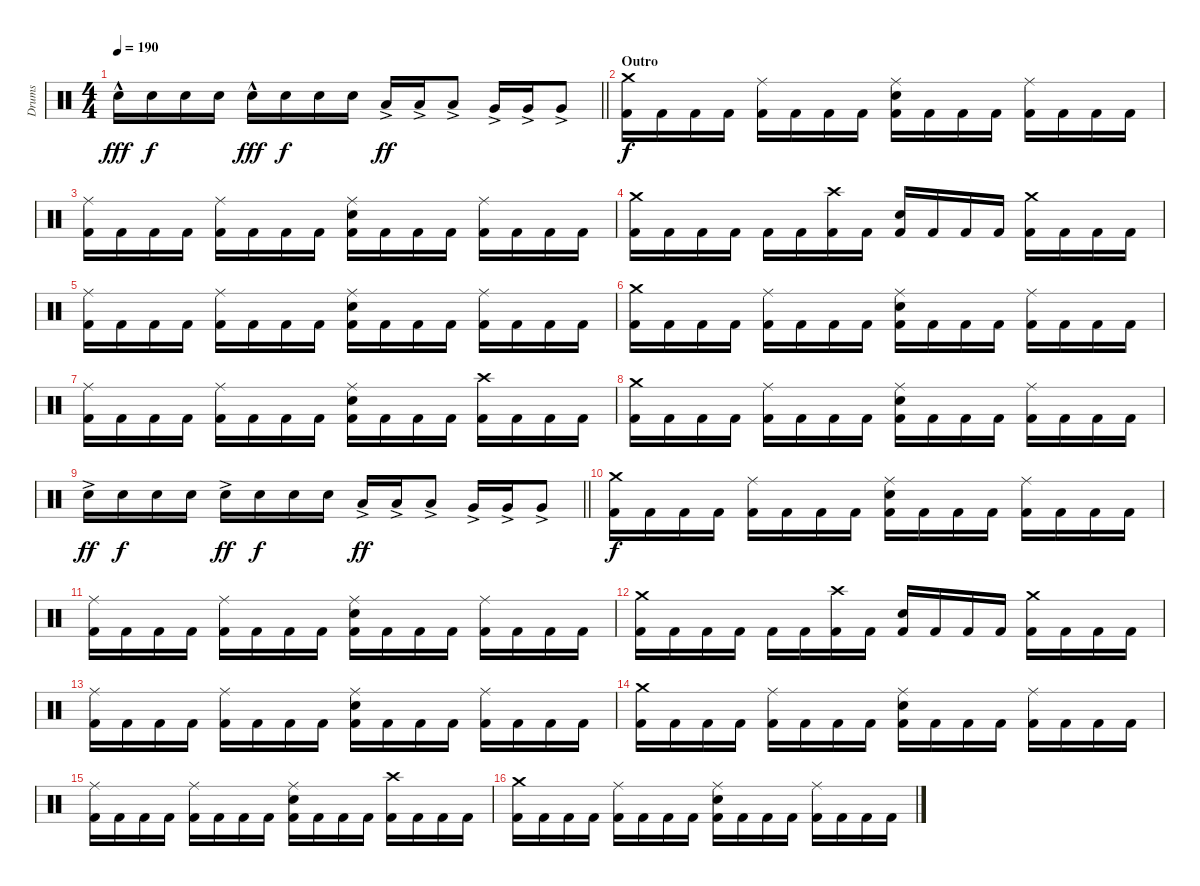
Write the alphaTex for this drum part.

\track ("Drums" "Drums") {instrument percussion}
\staff {score}
\articulation defaults
\ts (4 4)
\tempo 190
\clef neutral
\barLineRight lightlight
\ks c "Snare (hit) 2"{hac}.16{dy fff} "Snare (hit) 2".16{dy f} "Snare (hit) 2".16 "Snare (hit) 2".16 "Snare (hit) 2"{hac}.16{dy fff} "Snare (hit) 2".16{dy f} "Snare (hit) 2".16 "Snare (hit) 2".16 "Low Tom (hit)"{ac}.16{dy ff} "Low Tom (hit)"{ac}.16 "Low Tom (hit)"{ac}.8 "Very Low Tom (hit)"{ac}.16 "Very Low Tom (hit)"{ac}.16 "Very Low Tom (hit)"{ac}.8
|
\section ("" "Outro")
("Kick (hit) 2" "Crash medium (hit)").16{dy f} "Kick (hit) 2".16 "Kick (hit) 2".16 "Kick (hit) 2".16 ("Kick (hit) 2" "Ride (middle)").16 "Kick (hit) 2".16 "Kick (hit) 2".16 "Kick (hit) 2".16 ("Kick (hit) 2" "Snare (hit) 2" "Ride (middle)").16 "Kick (hit) 2".16 "Kick (hit) 2".16 "Kick (hit) 2".16 ("Kick (hit) 2" "Ride (middle)").16 "Kick (hit) 2".16 "Kick (hit) 2".16 "Kick (hit) 2".16 |
("Kick (hit) 2" "Ride (middle)").16 "Kick (hit) 2".16 "Kick (hit) 2".16 "Kick (hit) 2".16 ("Kick (hit) 2" "Ride (middle)").16 "Kick (hit) 2".16 "Kick (hit) 2".16 "Kick (hit) 2".16 ("Kick (hit) 2" "Snare (hit) 2" "Ride (middle)").16 "Kick (hit) 2".16 "Kick (hit) 2".16 "Kick (hit) 2".16 ("Kick (hit) 2" "Ride (middle)").16 "Kick (hit) 2".16 "Kick (hit) 2".16 "Kick (hit) 2".16 |
("Kick (hit) 2" "Crash medium (hit)").16 "Kick (hit) 2".16 "Kick (hit) 2".16 "Kick (hit) 2".16 "Kick (hit) 2".16 "Kick (hit) 2".16 ("Kick (hit) 2" "Crash high (hit)").16 "Kick (hit) 2".16 ("Kick (hit) 2" "Snare (hit) 2").16 "Kick (hit) 2".16 "Kick (hit) 2".16 "Kick (hit) 2".16 ("Kick (hit) 2" "Crash medium (hit)").16 "Kick (hit) 2".16 "Kick (hit) 2".16 "Kick (hit) 2".16 |
("Kick (hit) 2" "Ride (middle)").16 "Kick (hit) 2".16 "Kick (hit) 2".16 "Kick (hit) 2".16 ("Kick (hit) 2" "Ride (middle)").16 "Kick (hit) 2".16 "Kick (hit) 2".16 "Kick (hit) 2".16 ("Kick (hit) 2" "Snare (hit) 2" "Ride (middle)").16 "Kick (hit) 2".16 "Kick (hit) 2".16 "Kick (hit) 2".16 ("Kick (hit) 2" "Ride (middle)").16 "Kick (hit) 2".16 "Kick (hit) 2".16 "Kick (hit) 2".16 |
("Kick (hit) 2" "Crash medium (hit)").16 "Kick (hit) 2".16 "Kick (hit) 2".16 "Kick (hit) 2".16 ("Kick (hit) 2" "Ride (middle)").16 "Kick (hit) 2".16 "Kick (hit) 2".16 "Kick (hit) 2".16 ("Kick (hit) 2" "Snare (hit) 2" "Ride (middle)").16 "Kick (hit) 2".16 "Kick (hit) 2".16 "Kick (hit) 2".16 ("Kick (hit) 2" "Ride (middle)").16 "Kick (hit) 2".16 "Kick (hit) 2".16 "Kick (hit) 2".16 |
("Kick (hit) 2" "Ride (middle)").16 "Kick (hit) 2".16 "Kick (hit) 2".16 "Kick (hit) 2".16 ("Kick (hit) 2" "Ride (middle)").16 "Kick (hit) 2".16 "Kick (hit) 2".16 "Kick (hit) 2".16 ("Kick (hit) 2" "Snare (hit) 2" "Ride (middle)").16 "Kick (hit) 2".16 "Kick (hit) 2".16 "Kick (hit) 2".16 ("Kick (hit) 2" "Crash high (hit)").16 "Kick (hit) 2".16 "Kick (hit) 2".16 "Kick (hit) 2".16 |
("Kick (hit) 2" "Crash medium (hit)").16 "Kick (hit) 2".16 "Kick (hit) 2".16 "Kick (hit) 2".16 ("Kick (hit) 2" "Ride (middle)").16 "Kick (hit) 2".16 "Kick (hit) 2".16 "Kick (hit) 2".16 ("Kick (hit) 2" "Snare (hit) 2" "Ride (middle)").16 "Kick (hit) 2".16 "Kick (hit) 2".16 "Kick (hit) 2".16 ("Kick (hit) 2" "Ride (middle)").16 "Kick (hit) 2".16 "Kick (hit) 2".16 "Kick (hit) 2".16 |
\barLineRight lightlight "Snare (hit) 2"{ac}.16{dy ff} "Snare (hit) 2".16{dy f} "Snare (hit) 2".16 "Snare (hit) 2".16 "Snare (hit) 2"{ac}.16{dy ff} "Snare (hit) 2".16{dy f} "Snare (hit) 2".16 "Snare (hit) 2".16 "Low Tom (hit)"{ac}.16{dy ff} "Low Tom (hit)"{ac}.16 "Low Tom (hit)"{ac}.8 "Very Low Tom (hit)"{ac}.16 "Very Low Tom (hit)"{ac}.16 "Very Low Tom (hit)"{ac}.8
|
\section ("" "")
("Kick (hit) 2" "Crash medium (hit)").16{dy f} "Kick (hit) 2".16 "Kick (hit) 2".16 "Kick (hit) 2".16 ("Kick (hit) 2" "Ride (middle)").16 "Kick (hit) 2".16 "Kick (hit) 2".16 "Kick (hit) 2".16 ("Kick (hit) 2" "Snare (hit) 2" "Ride (middle)").16 "Kick (hit) 2".16 "Kick (hit) 2".16 "Kick (hit) 2".16 ("Kick (hit) 2" "Ride (middle)").16 "Kick (hit) 2".16 "Kick (hit) 2".16 "Kick (hit) 2".16 |
("Kick (hit) 2" "Ride (middle)").16 "Kick (hit) 2".16 "Kick (hit) 2".16 "Kick (hit) 2".16 ("Kick (hit) 2" "Ride (middle)").16 "Kick (hit) 2".16 "Kick (hit) 2".16 "Kick (hit) 2".16 ("Kick (hit) 2" "Snare (hit) 2" "Ride (middle)").16 "Kick (hit) 2".16 "Kick (hit) 2".16 "Kick (hit) 2".16 ("Kick (hit) 2" "Ride (middle)").16 "Kick (hit) 2".16 "Kick (hit) 2".16 "Kick (hit) 2".16 |
("Kick (hit) 2" "Crash medium (hit)").16 "Kick (hit) 2".16 "Kick (hit) 2".16 "Kick (hit) 2".16 "Kick (hit) 2".16 "Kick (hit) 2".16 ("Kick (hit) 2" "Crash high (hit)").16 "Kick (hit) 2".16 ("Kick (hit) 2" "Snare (hit) 2").16 "Kick (hit) 2".16 "Kick (hit) 2".16 "Kick (hit) 2".16 ("Kick (hit) 2" "Crash medium (hit)").16 "Kick (hit) 2".16 "Kick (hit) 2".16 "Kick (hit) 2".16 |
("Kick (hit) 2" "Ride (middle)").16 "Kick (hit) 2".16 "Kick (hit) 2".16 "Kick (hit) 2".16 ("Kick (hit) 2" "Ride (middle)").16 "Kick (hit) 2".16 "Kick (hit) 2".16 "Kick (hit) 2".16 ("Kick (hit) 2" "Snare (hit) 2" "Ride (middle)").16 "Kick (hit) 2".16 "Kick (hit) 2".16 "Kick (hit) 2".16 ("Kick (hit) 2" "Ride (middle)").16 "Kick (hit) 2".16 "Kick (hit) 2".16 "Kick (hit) 2".16 |
("Kick (hit) 2" "Crash medium (hit)").16 "Kick (hit) 2".16 "Kick (hit) 2".16 "Kick (hit) 2".16 ("Kick (hit) 2" "Ride (middle)").16 "Kick (hit) 2".16 "Kick (hit) 2".16 "Kick (hit) 2".16 ("Kick (hit) 2" "Snare (hit) 2" "Ride (middle)").16 "Kick (hit) 2".16 "Kick (hit) 2".16 "Kick (hit) 2".16 ("Kick (hit) 2" "Ride (middle)").16 "Kick (hit) 2".16 "Kick (hit) 2".16 "Kick (hit) 2".16 |
("Kick (hit) 2" "Ride (middle)").16 "Kick (hit) 2".16 "Kick (hit) 2".16 "Kick (hit) 2".16 ("Kick (hit) 2" "Ride (middle)").16 "Kick (hit) 2".16 "Kick (hit) 2".16 "Kick (hit) 2".16 ("Kick (hit) 2" "Snare (hit) 2" "Ride (middle)").16 "Kick (hit) 2".16 "Kick (hit) 2".16 "Kick (hit) 2".16 ("Kick (hit) 2" "Crash high (hit)").16 "Kick (hit) 2".16 "Kick (hit) 2".16 "Kick (hit) 2".16 |
("Kick (hit) 2" "Crash medium (hit)").16 "Kick (hit) 2".16 "Kick (hit) 2".16 "Kick (hit) 2".16 ("Kick (hit) 2" "Ride (middle)").16 "Kick (hit) 2".16 "Kick (hit) 2".16 "Kick (hit) 2".16 ("Kick (hit) 2" "Snare (hit) 2" "Ride (middle)").16 "Kick (hit) 2".16 "Kick (hit) 2".16 "Kick (hit) 2".16 ("Kick (hit) 2" "Ride (middle)").16 "Kick (hit) 2".16 "Kick (hit) 2".16 "Kick (hit) 2".16
